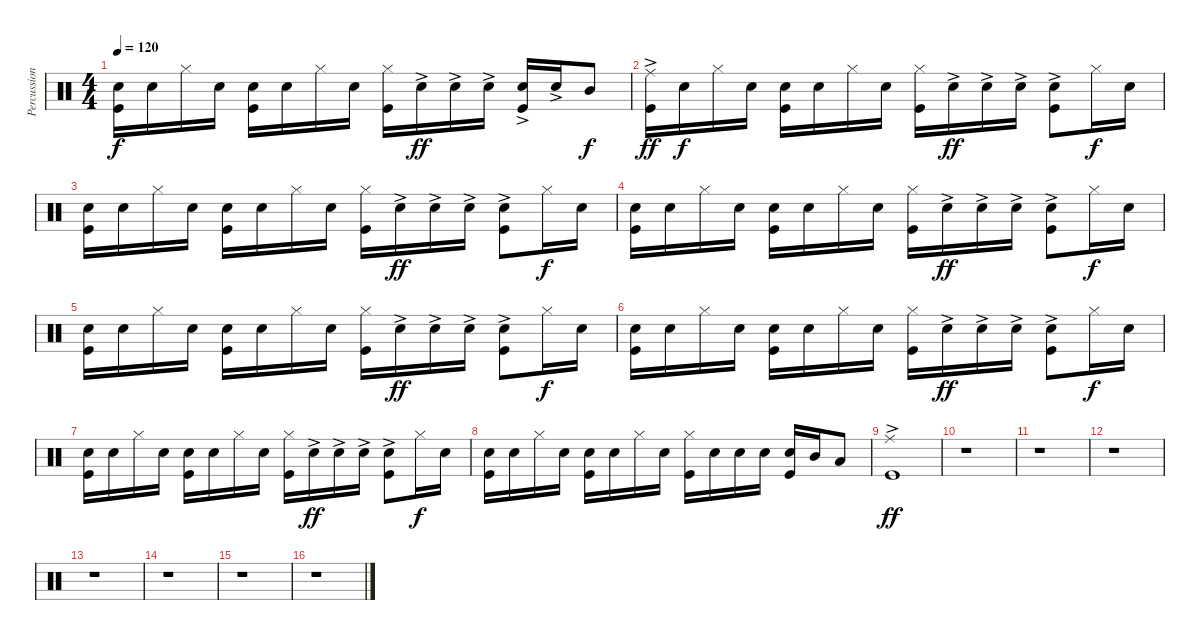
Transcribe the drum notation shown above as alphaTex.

\track ("Percussion" "Percussion") {instrument percussion}
\staff {score}
\articulation defaults
\ts (4 4)
\tempo 120
\clef neutral
\ks c
("Snare (hit) 2" "Kick (hit)").16{dy f} "Snare (hit) 2".16 "Hi-Hat (closed)".16 "Snare (hit) 2".16 ("Snare (hit) 2" "Kick (hit)").16 "Snare (hit) 2".16 "Hi-Hat (closed)".16 "Snare (hit) 2".16 ("Hi-Hat (closed)" "Kick (hit)").16 "Snare (hit) 2"{ac}.16{dy ff} "Snare (hit) 2"{ac}.16 "Snare (hit) 2"{ac}.16 ("Snare (hit) 2"{ac} "Kick (hit)").16 "Snare (hit) 2"{ac}.16 "Mid Tom (hit)".8{dy f} |
("Ride (middle)"{ac} "Kick (hit)").16{dy ff} "Snare (hit) 2".16{dy f} "Hi-Hat (closed)".16 "Snare (hit) 2".16 ("Snare (hit) 2" "Kick (hit)").16 "Snare (hit) 2".16 "Hi-Hat (closed)".16 "Snare (hit) 2".16 ("Hi-Hat (closed)" "Kick (hit)").16 "Snare (hit) 2"{ac}.16{dy ff} "Snare (hit) 2"{ac}.16 "Snare (hit) 2"{ac}.16 ("Snare (hit) 2"{ac} "Kick (hit)").8 "Hi-Hat (closed)".16{dy f} "Snare (hit) 2".16 |
("Snare (hit) 2" "Kick (hit)").16 "Snare (hit) 2".16 "Hi-Hat (closed)".16 "Snare (hit) 2".16 ("Snare (hit) 2" "Kick (hit)").16 "Snare (hit) 2".16 "Hi-Hat (closed)".16 "Snare (hit) 2".16 ("Hi-Hat (closed)" "Kick (hit)").16 "Snare (hit) 2"{ac}.16{dy ff} "Snare (hit) 2"{ac}.16 "Snare (hit) 2"{ac}.16 ("Snare (hit) 2"{ac} "Kick (hit)").8 "Hi-Hat (closed)".16{dy f} "Snare (hit) 2".16 |
("Snare (hit) 2" "Kick (hit)").16 "Snare (hit) 2".16 "Hi-Hat (closed)".16 "Snare (hit) 2".16 ("Snare (hit) 2" "Kick (hit)").16 "Snare (hit) 2".16 "Hi-Hat (closed)".16 "Snare (hit) 2".16 ("Hi-Hat (closed)" "Kick (hit)").16 "Snare (hit) 2"{ac}.16{dy ff} "Snare (hit) 2"{ac}.16 "Snare (hit) 2"{ac}.16 ("Snare (hit) 2"{ac} "Kick (hit)").8 "Hi-Hat (closed)".16{dy f} "Snare (hit) 2".16 |
("Snare (hit) 2" "Kick (hit)").16 "Snare (hit) 2".16 "Hi-Hat (closed)".16 "Snare (hit) 2".16 ("Snare (hit) 2" "Kick (hit)").16 "Snare (hit) 2".16 "Hi-Hat (closed)".16 "Snare (hit) 2".16 ("Hi-Hat (closed)" "Kick (hit)").16 "Snare (hit) 2"{ac}.16{dy ff} "Snare (hit) 2"{ac}.16 "Snare (hit) 2"{ac}.16 ("Snare (hit) 2"{ac} "Kick (hit)").8 "Hi-Hat (closed)".16{dy f} "Snare (hit) 2".16 |
("Snare (hit) 2" "Kick (hit)").16 "Snare (hit) 2".16 "Hi-Hat (closed)".16 "Snare (hit) 2".16 ("Snare (hit) 2" "Kick (hit)").16 "Snare (hit) 2".16 "Hi-Hat (closed)".16 "Snare (hit) 2".16 ("Hi-Hat (closed)" "Kick (hit)").16 "Snare (hit) 2"{ac}.16{dy ff} "Snare (hit) 2"{ac}.16 "Snare (hit) 2"{ac}.16 ("Snare (hit) 2"{ac} "Kick (hit)").8 "Hi-Hat (closed)".16{dy f} "Snare (hit) 2".16 |
("Snare (hit) 2" "Kick (hit)").16 "Snare (hit) 2".16 "Hi-Hat (closed)".16 "Snare (hit) 2".16 ("Snare (hit) 2" "Kick (hit)").16 "Snare (hit) 2".16 "Hi-Hat (closed)".16 "Snare (hit) 2".16 ("Hi-Hat (closed)" "Kick (hit)").16 "Snare (hit) 2"{ac}.16{dy ff} "Snare (hit) 2"{ac}.16 "Snare (hit) 2"{ac}.16 ("Snare (hit) 2"{ac} "Kick (hit)").8 "Hi-Hat (closed)".16{dy f} "Snare (hit) 2".16 |
("Snare (hit) 2" "Kick (hit)").16 "Snare (hit) 2".16 "Hi-Hat (closed)".16 "Snare (hit) 2".16 ("Snare (hit) 2" "Kick (hit)").16 "Snare (hit) 2".16 "Hi-Hat (closed)".16 "Snare (hit) 2".16 ("Hi-Hat (closed)" "Kick (hit)").16 "Snare (hit) 2".16 "Snare (hit) 2".16 "Snare (hit) 2".16 ("Snare (hit) 2" "Kick (hit)").16 "Mid Tom (hit)".16 "Low Tom (hit)".8 |
("Ride (middle)"{ac} "Kick (hit)").1{dy ff} |
r.1 |
r.1 |
r.1 |
r.1 |
r.1 |
r.1 |
r.1
